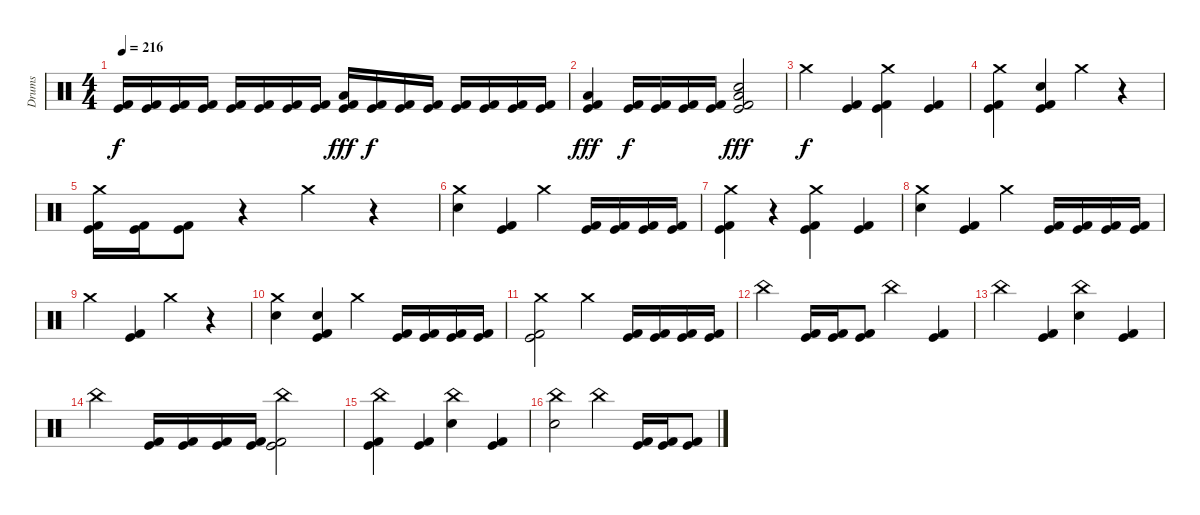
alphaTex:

\track ("Drums" "Drums") {instrument percussion}
\staff {score}
\articulation defaults
\ts (4 4)
\tempo 216
\clef neutral
\ks c
("Kick (hit)" "Kick (hit) 2").16{dy f} ("Kick (hit)" "Kick (hit) 2").16 ("Kick (hit)" "Kick (hit) 2").16 ("Kick (hit)" "Kick (hit) 2").16 ("Kick (hit)" "Kick (hit) 2").16 ("Kick (hit)" "Kick (hit) 2").16 ("Kick (hit)" "Kick (hit) 2").16 ("Kick (hit)" "Kick (hit) 2").16 ("Low Tom (hit)" "Kick (hit)" "Kick (hit) 2").16{dy fff} ("Kick (hit)" "Kick (hit) 2").16{dy f} ("Kick (hit)" "Kick (hit) 2").16 ("Kick (hit)" "Kick (hit) 2").16 ("Kick (hit)" "Kick (hit) 2").16 ("Kick (hit)" "Kick (hit) 2").16 ("Kick (hit)" "Kick (hit) 2").16 ("Kick (hit)" "Kick (hit) 2").16 |
("Low Tom (hit)" "Kick (hit)" "Kick (hit) 2").4{dy fff} ("Kick (hit)" "Kick (hit) 2").16{dy f} ("Kick (hit)" "Kick (hit) 2").16 ("Kick (hit)" "Kick (hit) 2").16 ("Kick (hit)" "Kick (hit) 2").16 ("Low Floor Tom (hit)" "Electric Snare (hit)" "Kick (hit)" "Kick (hit) 2").2{dy fff} |
"Crash medium (hit)".4{dy f} ("Kick (hit)" "Kick (hit) 2").4 ("Crash medium (hit)" "Kick (hit)" "Kick (hit) 2").4 ("Kick (hit)" "Kick (hit) 2").4 |
("Crash medium (hit)" "Kick (hit)" "Kick (hit) 2").4 ("Electric Snare (hit)" "Kick (hit)" "Kick (hit) 2").4 "Crash medium (hit)".4 r.4 |
("Crash medium (hit)" "Kick (hit)" "Kick (hit) 2").16 ("Kick (hit)" "Kick (hit) 2").16 ("Kick (hit)" "Kick (hit) 2").8 r.4 "Crash medium (hit)".4 r.4 |
("Crash medium (hit)" "Electric Snare (hit)").4 ("Kick (hit)" "Kick (hit) 2").4 "Crash medium (hit)".4 ("Kick (hit)" "Kick (hit) 2").16 ("Kick (hit)" "Kick (hit) 2").16 ("Kick (hit)" "Kick (hit) 2").16 ("Kick (hit)" "Kick (hit) 2").16 |
("Crash medium (hit)" "Kick (hit)" "Kick (hit) 2").4 r.4 ("Crash medium (hit)" "Kick (hit)" "Kick (hit) 2").4 ("Kick (hit)" "Kick (hit) 2").4 |
("Crash medium (hit)" "Electric Snare (hit)").4 ("Kick (hit)" "Kick (hit) 2").4 "Crash medium (hit)".4 ("Kick (hit)" "Kick (hit) 2").16 ("Kick (hit)" "Kick (hit) 2").16 ("Kick (hit)" "Kick (hit) 2").16 ("Kick (hit)" "Kick (hit) 2").16 |
"Crash medium (hit)".4 ("Kick (hit)" "Kick (hit) 2").4 "Crash medium (hit)".4 r.4 |
("Crash medium (hit)" "Electric Snare (hit)").4 ("Electric Snare (hit)" "Kick (hit)" "Kick (hit) 2").4 "Crash medium (hit)".4 ("Kick (hit)" "Kick (hit) 2").16 ("Kick (hit)" "Kick (hit) 2").16 ("Kick (hit)" "Kick (hit) 2").16 ("Kick (hit)" "Kick (hit) 2").16 |
("Crash medium (hit)" "Kick (hit)" "Kick (hit) 2").2 "Crash medium (hit)".4 ("Kick (hit)" "Kick (hit) 2").16 ("Kick (hit)" "Kick (hit) 2").16 ("Kick (hit)" "Kick (hit) 2").16 ("Kick (hit)" "Kick (hit) 2").16 |
"China (hit)".4 ("Kick (hit)" "Kick (hit) 2").16 ("Kick (hit)" "Kick (hit) 2").16 ("Kick (hit)" "Kick (hit) 2").8 "China (hit)".4 ("Kick (hit)" "Kick (hit) 2").4 |
"China (hit)".4 ("Kick (hit)" "Kick (hit) 2").4 ("China (hit)" "Electric Snare (hit)").4 ("Kick (hit)" "Kick (hit) 2").4 |
"China (hit)".4 ("Kick (hit)" "Kick (hit) 2").16 ("Kick (hit)" "Kick (hit) 2").16 ("Kick (hit)" "Kick (hit) 2").16 ("Kick (hit)" "Kick (hit) 2").16 ("China (hit)" "Kick (hit)" "Kick (hit) 2").2 |
("China (hit)" "Kick (hit)" "Kick (hit) 2").4 ("Kick (hit)" "Kick (hit) 2").4 ("China (hit)" "Electric Snare (hit)").4 ("Kick (hit)" "Kick (hit) 2").4 |
("China (hit)" "Electric Snare (hit)").2 "China (hit)".4 ("Kick (hit)" "Kick (hit) 2").16 ("Kick (hit)" "Kick (hit) 2").16 ("Kick (hit)" "Kick (hit) 2").8
